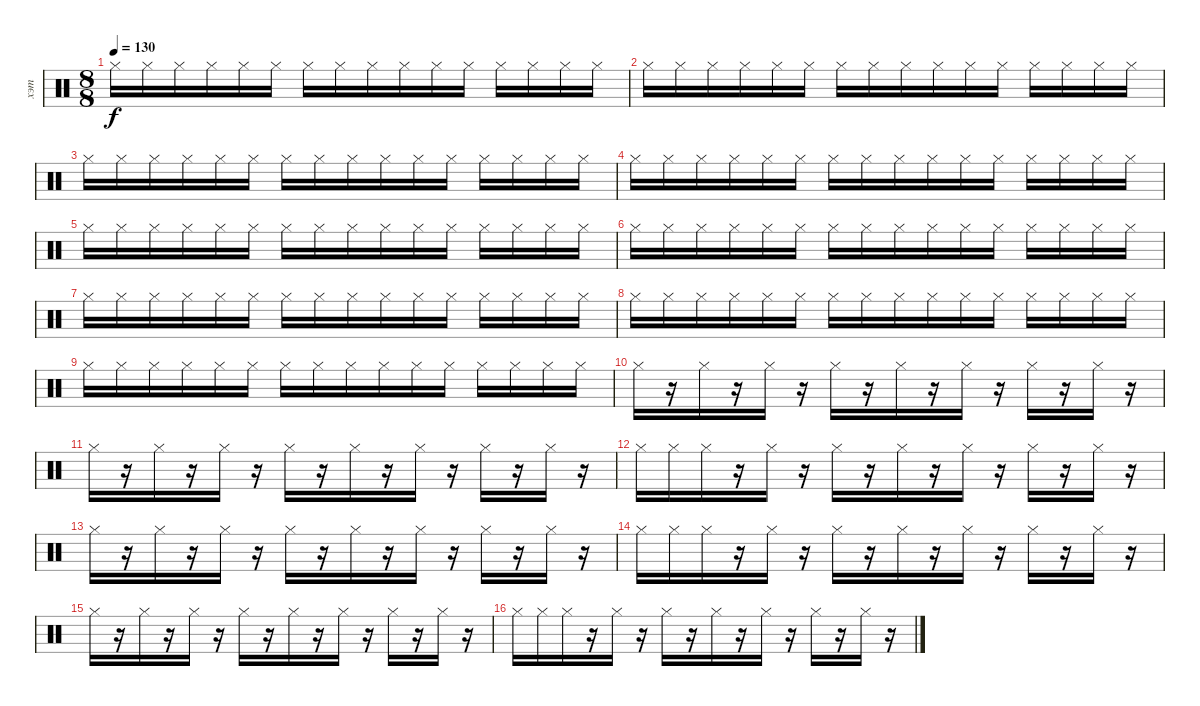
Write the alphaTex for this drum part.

\track ("хэт" "хэт") {instrument percussion}
\staff {score}
\articulation defaults
\ts (8 8)
\tempo 130
\clef neutral
\ks c "Hi-Hat (closed)".16{dy f} "Hi-Hat (closed)".16 "Hi-Hat (closed)".16 "Hi-Hat (closed)".16 "Hi-Hat (closed)".16 "Hi-Hat (closed)".16 "Hi-Hat (closed)".16 "Hi-Hat (closed)".16 "Hi-Hat (closed)".16 "Hi-Hat (closed)".16 "Hi-Hat (closed)".16 "Hi-Hat (closed)".16 "Hi-Hat (closed)".16 "Hi-Hat (closed)".16 "Hi-Hat (closed)".16 "Hi-Hat (closed)".16
|
"Hi-Hat (closed)".16 "Hi-Hat (closed)".16 "Hi-Hat (closed)".16 "Hi-Hat (closed)".16 "Hi-Hat (closed)".16 "Hi-Hat (closed)".16 "Hi-Hat (closed)".16 "Hi-Hat (closed)".16 "Hi-Hat (closed)".16 "Hi-Hat (closed)".16 "Hi-Hat (closed)".16 "Hi-Hat (closed)".16 "Hi-Hat (closed)".16 "Hi-Hat (closed)".16 "Hi-Hat (closed)".16 "Hi-Hat (closed)".16 |
"Hi-Hat (closed)".16 "Hi-Hat (closed)".16 "Hi-Hat (closed)".16 "Hi-Hat (closed)".16 "Hi-Hat (closed)".16 "Hi-Hat (closed)".16 "Hi-Hat (closed)".16 "Hi-Hat (closed)".16 "Hi-Hat (closed)".16 "Hi-Hat (closed)".16 "Hi-Hat (closed)".16 "Hi-Hat (closed)".16 "Hi-Hat (closed)".16 "Hi-Hat (closed)".16 "Hi-Hat (closed)".16 "Hi-Hat (closed)".16 |
"Hi-Hat (closed)".16 "Hi-Hat (closed)".16 "Hi-Hat (closed)".16 "Hi-Hat (closed)".16 "Hi-Hat (closed)".16 "Hi-Hat (closed)".16 "Hi-Hat (closed)".16 "Hi-Hat (closed)".16 "Hi-Hat (closed)".16 "Hi-Hat (closed)".16 "Hi-Hat (closed)".16 "Hi-Hat (closed)".16 "Hi-Hat (closed)".16 "Hi-Hat (closed)".16 "Hi-Hat (closed)".16 "Hi-Hat (closed)".16 |
"Hi-Hat (closed)".16 "Hi-Hat (closed)".16 "Hi-Hat (closed)".16 "Hi-Hat (closed)".16 "Hi-Hat (closed)".16 "Hi-Hat (closed)".16 "Hi-Hat (closed)".16 "Hi-Hat (closed)".16 "Hi-Hat (closed)".16 "Hi-Hat (closed)".16 "Hi-Hat (closed)".16 "Hi-Hat (closed)".16 "Hi-Hat (closed)".16 "Hi-Hat (closed)".16 "Hi-Hat (closed)".16 "Hi-Hat (closed)".16 |
"Hi-Hat (closed)".16 "Hi-Hat (closed)".16 "Hi-Hat (closed)".16 "Hi-Hat (closed)".16 "Hi-Hat (closed)".16 "Hi-Hat (closed)".16 "Hi-Hat (closed)".16 "Hi-Hat (closed)".16 "Hi-Hat (closed)".16 "Hi-Hat (closed)".16 "Hi-Hat (closed)".16 "Hi-Hat (closed)".16 "Hi-Hat (closed)".16 "Hi-Hat (closed)".16 "Hi-Hat (closed)".16 "Hi-Hat (closed)".16 |
"Hi-Hat (closed)".16 "Hi-Hat (closed)".16 "Hi-Hat (closed)".16 "Hi-Hat (closed)".16 "Hi-Hat (closed)".16 "Hi-Hat (closed)".16 "Hi-Hat (closed)".16 "Hi-Hat (closed)".16 "Hi-Hat (closed)".16 "Hi-Hat (closed)".16 "Hi-Hat (closed)".16 "Hi-Hat (closed)".16 "Hi-Hat (closed)".16 "Hi-Hat (closed)".16 "Hi-Hat (closed)".16 "Hi-Hat (closed)".16 |
"Hi-Hat (closed)".16 "Hi-Hat (closed)".16 "Hi-Hat (closed)".16 "Hi-Hat (closed)".16 "Hi-Hat (closed)".16 "Hi-Hat (closed)".16 "Hi-Hat (closed)".16 "Hi-Hat (closed)".16 "Hi-Hat (closed)".16 "Hi-Hat (closed)".16 "Hi-Hat (closed)".16 "Hi-Hat (closed)".16 "Hi-Hat (closed)".16 "Hi-Hat (closed)".16 "Hi-Hat (closed)".16 "Hi-Hat (closed)".16 |
"Hi-Hat (closed)".16 "Hi-Hat (closed)".16 "Hi-Hat (closed)".16 "Hi-Hat (closed)".16 "Hi-Hat (closed)".16 "Hi-Hat (closed)".16 "Hi-Hat (closed)".16 "Hi-Hat (closed)".16 "Hi-Hat (closed)".16 "Hi-Hat (closed)".16 "Hi-Hat (closed)".16 "Hi-Hat (closed)".16 "Hi-Hat (closed)".16 "Hi-Hat (closed)".16 "Hi-Hat (closed)".16 "Hi-Hat (closed)".16 |
"Hi-Hat (closed)".16 r.16 "Hi-Hat (closed)".16 r.16 "Hi-Hat (closed)".16 r.16 "Hi-Hat (closed)".16 r.16 "Hi-Hat (closed)".16 r.16 "Hi-Hat (closed)".16 r.16 "Hi-Hat (closed)".16 r.16 "Hi-Hat (closed)".16 r.16 |
"Hi-Hat (closed)".16 r.16 "Hi-Hat (closed)".16 r.16 "Hi-Hat (closed)".16 r.16 "Hi-Hat (closed)".16 r.16 "Hi-Hat (closed)".16 r.16 "Hi-Hat (closed)".16 r.16 "Hi-Hat (closed)".16 r.16 "Hi-Hat (closed)".16 r.16 |
"Hi-Hat (closed)".16 "Hi-Hat (closed)".16 "Hi-Hat (closed)".16 r.16 "Hi-Hat (closed)".16 r.16 "Hi-Hat (closed)".16 r.16 "Hi-Hat (closed)".16 r.16 "Hi-Hat (closed)".16 r.16 "Hi-Hat (closed)".16 r.16 "Hi-Hat (closed)".16 r.16 |
"Hi-Hat (closed)".16 r.16 "Hi-Hat (closed)".16 r.16 "Hi-Hat (closed)".16 r.16 "Hi-Hat (closed)".16 r.16 "Hi-Hat (closed)".16 r.16 "Hi-Hat (closed)".16 r.16 "Hi-Hat (closed)".16 r.16 "Hi-Hat (closed)".16 r.16 |
"Hi-Hat (closed)".16 "Hi-Hat (closed)".16 "Hi-Hat (closed)".16 r.16 "Hi-Hat (closed)".16 r.16 "Hi-Hat (closed)".16 r.16 "Hi-Hat (closed)".16 r.16 "Hi-Hat (closed)".16 r.16 "Hi-Hat (closed)".16 r.16 "Hi-Hat (closed)".16 r.16 |
"Hi-Hat (closed)".16 r.16 "Hi-Hat (closed)".16 r.16 "Hi-Hat (closed)".16 r.16 "Hi-Hat (closed)".16 r.16 "Hi-Hat (closed)".16 r.16 "Hi-Hat (closed)".16 r.16 "Hi-Hat (closed)".16 r.16 "Hi-Hat (closed)".16 r.16 |
"Hi-Hat (closed)".16 "Hi-Hat (closed)".16 "Hi-Hat (closed)".16 r.16 "Hi-Hat (closed)".16 r.16 "Hi-Hat (closed)".16 r.16 "Hi-Hat (closed)".16 r.16 "Hi-Hat (closed)".16 r.16 "Hi-Hat (closed)".16 r.16 "Hi-Hat (closed)".16 r.16
